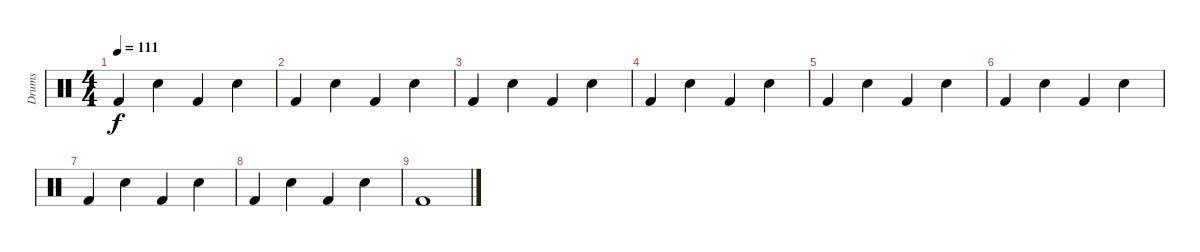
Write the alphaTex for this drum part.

\track ("Drums" "Drums") {instrument percussion}
\staff {score}
\articulation defaults
\ts (4 4)
\tempo 111
\clef neutral
\ks c "Kick (hit) 2".4{dy f} "Electric Snare (hit)".4 "Kick (hit) 2".4 "Electric Snare (hit)".4
|
"Kick (hit) 2".4 "Electric Snare (hit)".4 "Kick (hit) 2".4 "Electric Snare (hit)".4 |
"Kick (hit) 2".4 "Electric Snare (hit)".4 "Kick (hit) 2".4 "Electric Snare (hit)".4 |
"Kick (hit) 2".4 "Electric Snare (hit)".4 "Kick (hit) 2".4 "Electric Snare (hit)".4 |
"Kick (hit) 2".4 "Electric Snare (hit)".4 "Kick (hit) 2".4 "Electric Snare (hit)".4 |
"Kick (hit) 2".4 "Electric Snare (hit)".4 "Kick (hit) 2".4 "Electric Snare (hit)".4 |
"Kick (hit) 2".4 "Electric Snare (hit)".4 "Kick (hit) 2".4 "Electric Snare (hit)".4 |
"Kick (hit) 2".4 "Electric Snare (hit)".4 "Kick (hit) 2".4 "Electric Snare (hit)".4 |
"Kick (hit) 2".1
